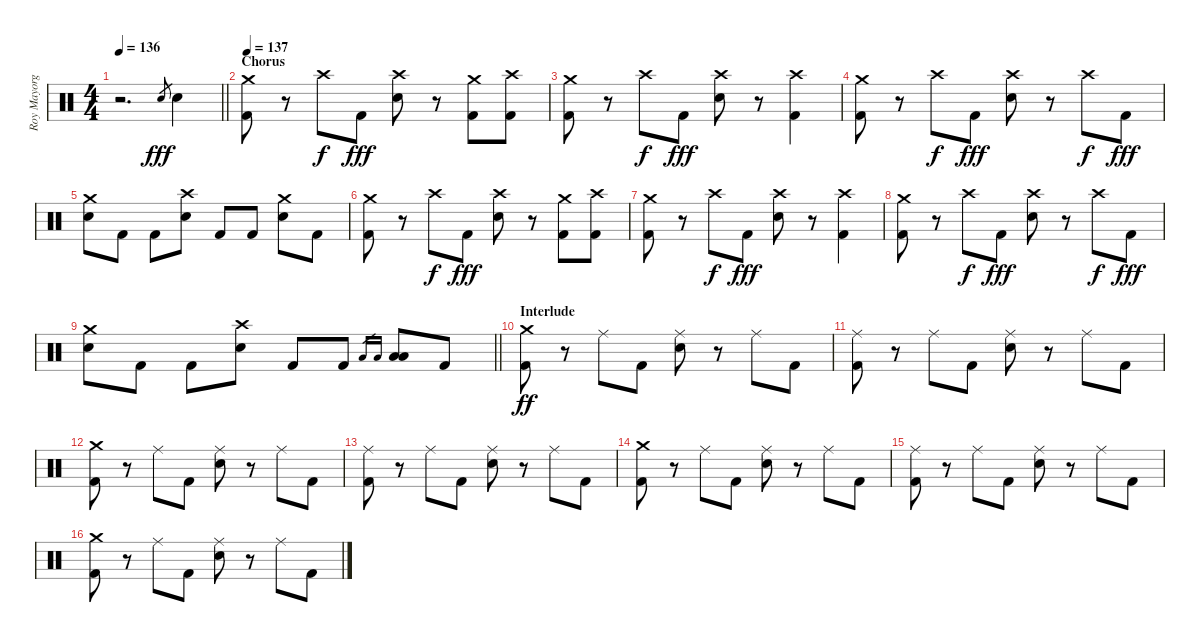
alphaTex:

\track ("Roy Mayorga (Drums)" "Roy Mayorg") {instrument percussion}
\staff {score}
\articulation defaults
\ts (4 4)
\tempo 136
\clef neutral
\barLineRight lightlight
\ks c
r.2{d dy ff} "Electric Snare (hit)".8{gr dy fff} "Electric Snare (hit)".4 |
\section ("" "Chorus")
\tempo 137
("Crash medium (hit)" "Kick (hit) 2").8 r.8 "Crash high (hit)".8{dy f} "Kick (hit) 2".8{dy fff} ("Crash high (hit)" "Electric Snare (hit)").8 r.8 ("Crash medium (hit)" "Kick (hit) 2").8 ("Crash high (hit)" "Kick (hit) 2").8 |
("Crash medium (hit)" "Kick (hit) 2").8 r.8 "Crash high (hit)".8{dy f} "Kick (hit) 2".8{dy fff} ("Crash high (hit)" "Electric Snare (hit)").8 r.8 ("Crash high (hit)" "Kick (hit) 2").4 |
("Crash medium (hit)" "Kick (hit) 2").8 r.8 "Crash high (hit)".8{dy f} "Kick (hit) 2".8{dy fff} ("Crash high (hit)" "Electric Snare (hit)").8 r.8 "Crash high (hit)".8{dy f} "Kick (hit) 2".8{dy fff} |
("Crash medium (hit)" "Electric Snare (hit)").8 "Kick (hit) 2".8 "Kick (hit) 2".8 ("Crash high (hit)" "Electric Snare (hit)").8 "Kick (hit) 2".8 "Kick (hit) 2".8 ("Crash medium (hit)" "Electric Snare (hit)").8 "Kick (hit) 2".8 |
("Crash medium (hit)" "Kick (hit) 2").8 r.8 "Crash high (hit)".8{dy f} "Kick (hit) 2".8{dy fff} ("Crash high (hit)" "Electric Snare (hit)").8 r.8 ("Crash medium (hit)" "Kick (hit) 2").8 ("Crash high (hit)" "Kick (hit) 2").8 |
("Crash medium (hit)" "Kick (hit) 2").8 r.8 "Crash high (hit)".8{dy f} "Kick (hit) 2".8{dy fff} ("Crash high (hit)" "Electric Snare (hit)").8 r.8 ("Crash high (hit)" "Kick (hit) 2").4 |
("Crash medium (hit)" "Kick (hit) 2").8 r.8 "Crash high (hit)".8{dy f} "Kick (hit) 2".8{dy fff} ("Crash high (hit)" "Electric Snare (hit)").8 r.8 "Crash high (hit)".8{dy f} "Kick (hit) 2".8{dy fff} |
\barLineRight lightlight
("Crash medium (hit)" "Electric Snare (hit)").8 "Kick (hit) 2".8 "Kick (hit) 2".8 ("Crash high (hit)" "Electric Snare (hit)").8 "Kick (hit) 2".8 "Kick (hit) 2".8 "Low Tom (hit)".16{gr} "Low Floor Tom (hit)".16{gr} ("Low Tom (hit)" "Low Floor Tom (hit)").8 "Kick (hit) 2".8 |
\section ("" "Interlude")
("Crash medium (hit)" "Kick (hit) 2").8{dy ff} r.8 "Ride (middle)".8 "Kick (hit) 2".8 ("Ride (middle)" "Electric Snare (hit)").8 r.8 "Ride (middle)".8 "Kick (hit) 2".8 |
("Ride (middle)" "Kick (hit) 2").8 r.8 "Ride (middle)".8 "Kick (hit) 2".8 ("Ride (middle)" "Electric Snare (hit)").8 r.8 "Ride (middle)".8 "Kick (hit) 2".8 |
("Crash medium (hit)" "Kick (hit) 2").8 r.8 "Ride (middle)".8 "Kick (hit) 2".8 ("Ride (middle)" "Electric Snare (hit)").8 r.8 "Ride (middle)".8 "Kick (hit) 2".8 |
("Ride (middle)" "Kick (hit) 2").8 r.8 "Ride (middle)".8 "Kick (hit) 2".8 ("Ride (middle)" "Electric Snare (hit)").8 r.8 "Ride (middle)".8 "Kick (hit) 2".8 |
("Crash medium (hit)" "Kick (hit) 2").8 r.8 "Ride (middle)".8 "Kick (hit) 2".8 ("Ride (middle)" "Electric Snare (hit)").8 r.8 "Ride (middle)".8 "Kick (hit) 2".8 |
("Ride (middle)" "Kick (hit) 2").8 r.8 "Ride (middle)".8 "Kick (hit) 2".8 ("Ride (middle)" "Electric Snare (hit)").8 r.8 "Ride (middle)".8 "Kick (hit) 2".8 |
("Crash medium (hit)" "Kick (hit) 2").8 r.8 "Ride (middle)".8 "Kick (hit) 2".8 ("Ride (middle)" "Electric Snare (hit)").8 r.8 "Ride (middle)".8 "Kick (hit) 2".8
